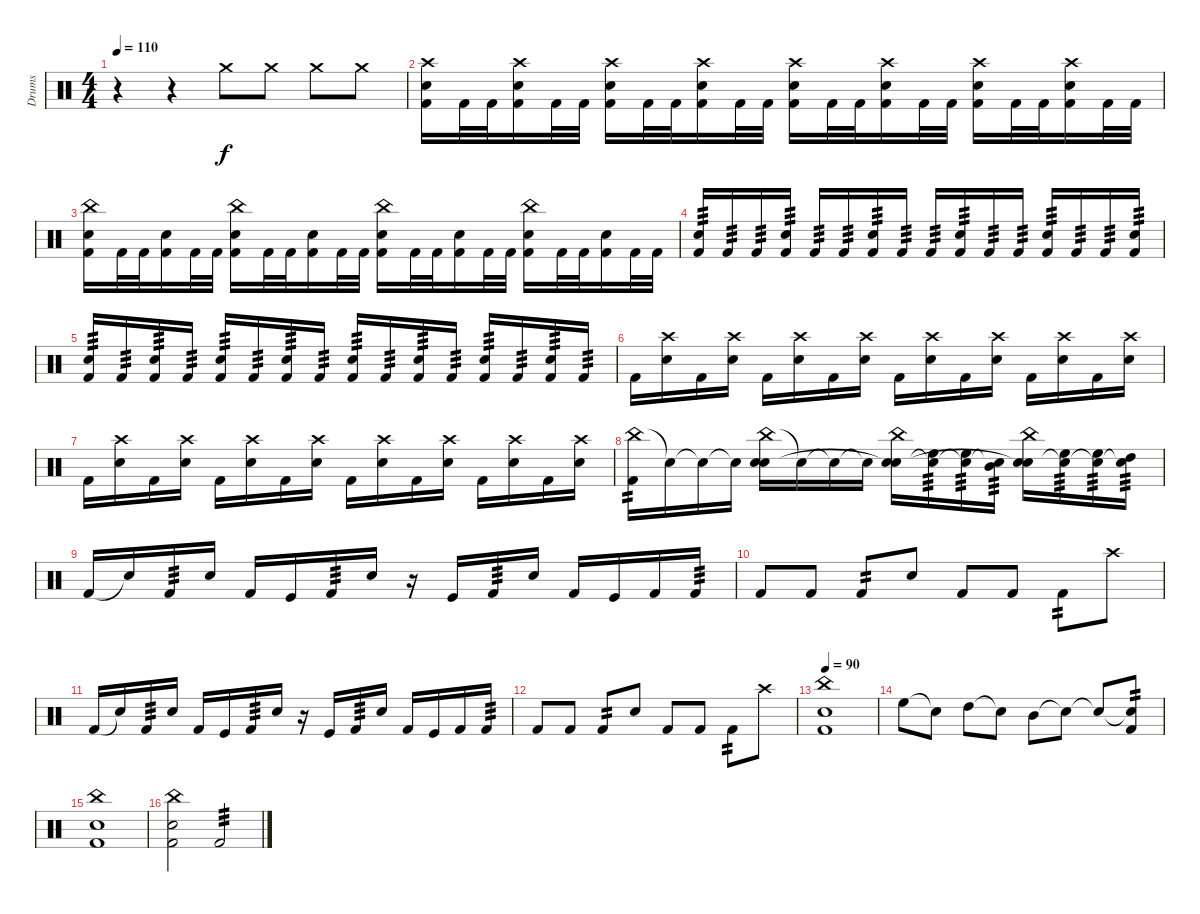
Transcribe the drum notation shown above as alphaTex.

\track ("Drums" "Drums") {instrument percussion}
\staff {score}
\articulation defaults
\ts (4 4)
\tempo 110
\clef neutral
\ks c
r.4{dy f} r.4 "Crash medium (hit)".8 "Crash medium (hit)".8 "Crash medium (hit)".8 "Crash medium (hit)".8 |
("Crash high (hit)" "Electric Snare (hit)" "Kick (hit) 2").16 "Kick (hit) 2".32 "Kick (hit) 2".32 ("Crash high (hit)" "Electric Snare (hit)" "Kick (hit) 2").16 "Kick (hit) 2".32 "Kick (hit) 2".32 ("Crash high (hit)" "Electric Snare (hit)" "Kick (hit) 2").16 "Kick (hit) 2".32 "Kick (hit) 2".32 ("Crash high (hit)" "Electric Snare (hit)" "Kick (hit) 2").16 "Kick (hit) 2".32 "Kick (hit) 2".32 ("Crash high (hit)" "Electric Snare (hit)" "Kick (hit) 2").16 "Kick (hit) 2".32 "Kick (hit) 2".32 ("Crash high (hit)" "Electric Snare (hit)" "Kick (hit) 2").16 "Kick (hit) 2".32 "Kick (hit) 2".32 ("Crash high (hit)" "Electric Snare (hit)" "Kick (hit) 2").16 "Kick (hit) 2".32 "Kick (hit) 2".32 ("Crash high (hit)" "Electric Snare (hit)" "Kick (hit) 2").16 "Kick (hit) 2".32 "Kick (hit) 2".32 |
("China (hit)" "Electric Snare (hit)" "Kick (hit) 2").16 "Kick (hit) 2".32 "Kick (hit) 2".32 ("Electric Snare (hit)" "Kick (hit) 2").16 "Kick (hit) 2".32 "Kick (hit) 2".32 ("China (hit)" "Electric Snare (hit)" "Kick (hit) 2").16 "Kick (hit) 2".32 "Kick (hit) 2".32 ("Electric Snare (hit)" "Kick (hit) 2").16 "Kick (hit) 2".32 "Kick (hit) 2".32 ("China (hit)" "Electric Snare (hit)" "Kick (hit) 2").16 "Kick (hit) 2".32 "Kick (hit) 2".32 ("Electric Snare (hit)" "Kick (hit) 2").16 "Kick (hit) 2".32 "Kick (hit) 2".32 ("China (hit)" "Electric Snare (hit)" "Kick (hit) 2").16 "Kick (hit) 2".32 "Kick (hit) 2".32 ("Electric Snare (hit)" "Kick (hit) 2").16 "Kick (hit) 2".32 "Kick (hit) 2".32 |
("Electric Snare (hit)" "Kick (hit) 2").16{tp 3} "Kick (hit) 2".16{tp 3} "Kick (hit) 2".16{tp 3} ("Electric Snare (hit)" "Kick (hit) 2").16{tp 3} "Kick (hit) 2".16{tp 3} "Kick (hit) 2".16{tp 3} ("Electric Snare (hit)" "Kick (hit) 2").16{tp 3} "Kick (hit) 2".16{tp 3} "Kick (hit) 2".16{tp 3} ("Electric Snare (hit)" "Kick (hit) 2").16{tp 3} "Kick (hit) 2".16{tp 3} "Kick (hit) 2".16{tp 3} ("Electric Snare (hit)" "Kick (hit) 2").16{tp 3} "Kick (hit) 2".16{tp 3} "Kick (hit) 2".16{tp 3} ("Electric Snare (hit)" "Kick (hit) 2").16{tp 3} |
("Electric Snare (hit)" "Kick (hit) 2").16{tp 3} "Kick (hit) 2".16{tp 3} ("Electric Snare (hit)" "Kick (hit) 2").16{tp 3} "Kick (hit) 2".16{tp 3} ("Electric Snare (hit)" "Kick (hit) 2").16{tp 3} "Kick (hit) 2".16{tp 3} ("Electric Snare (hit)" "Kick (hit) 2").16{tp 3} "Kick (hit) 2".16{tp 3} ("Electric Snare (hit)" "Kick (hit) 2").16{tp 3} "Kick (hit) 2".16{tp 3} ("Electric Snare (hit)" "Kick (hit) 2").16{tp 3} "Kick (hit) 2".16{tp 3} ("Electric Snare (hit)" "Kick (hit) 2").16{tp 3} "Kick (hit) 2".16{tp 3} ("Electric Snare (hit)" "Kick (hit) 2").16{tp 3} "Kick (hit) 2".16{tp 3} |
"Kick (hit) 2".16 ("Crash high (hit)" "Electric Snare (hit)").16 "Kick (hit) 2".16 ("Crash high (hit)" "Electric Snare (hit)").16 "Kick (hit) 2".16 ("Crash high (hit)" "Electric Snare (hit)").16 "Kick (hit) 2".16 ("Crash high (hit)" "Electric Snare (hit)").16 "Kick (hit) 2".16 ("Crash high (hit)" "Electric Snare (hit)").16 "Kick (hit) 2".16 ("Crash high (hit)" "Electric Snare (hit)").16 "Kick (hit) 2".16 ("Crash high (hit)" "Electric Snare (hit)").16 "Kick (hit) 2".16 ("Crash high (hit)" "Electric Snare (hit)").16 |
"Kick (hit) 2".16 ("Crash high (hit)" "Electric Snare (hit)").16 "Kick (hit) 2".16 ("Crash high (hit)" "Electric Snare (hit)").16 "Kick (hit) 2".16 ("Crash high (hit)" "Electric Snare (hit)").16 "Kick (hit) 2".16 ("Crash high (hit)" "Electric Snare (hit)").16 "Kick (hit) 2".16 ("Crash high (hit)" "Electric Snare (hit)").16 "Kick (hit) 2".16 ("Crash high (hit)" "Electric Snare (hit)").16 "Kick (hit) 2".16 ("Crash high (hit)" "Electric Snare (hit)").16 "Kick (hit) 2".16 ("Crash high (hit)" "Electric Snare (hit)").16 |
("China (hit)" "Kick (hit) 2").16{tp 2} "Snare (hit)"{t}.16 "Snare (hit)"{t}.16 "Snare (hit)"{t}.16 ("China (hit)" "Electric Snare (hit)" "Snare (hit)").16 "Snare (hit)"{t}.16 "Snare (hit)"{t}.16 "Snare (hit)"{t}.16 ("China (hit)" "Electric Snare (hit)" "Snare (hit)"{t}).16 ("High Floor Tom (hit)" "Snare (hit)"{t}).16{tp 3} ("High Floor Tom (hit)" "Snare (hit)"{t}).16{tp 3} ("Mid Tom (hit)" "Snare (hit)"{t}).16{tp 3} ("China (hit)" "Electric Snare (hit)" "Snare (hit)"{t}).16 ("High Floor Tom (hit)" "Snare (hit)"{t}).16{tp 3} ("High Floor Tom (hit)" "Snare (hit)"{t}).16{tp 3} ("High Tom (hit)" "Snare (hit)"{t}).16{tp 3} |
"Kick (hit) 2".16 "Snare (hit)"{t}.16 "Kick (hit) 2".16{tp 3} "Electric Snare (hit)".16 "Kick (hit) 2".16 "Kick (hit)".16 "Kick (hit) 2".16{tp 3} "Electric Snare (hit)".16 r.16 "Kick (hit)".16 "Kick (hit) 2".16{tp 3} "Electric Snare (hit)".16 "Kick (hit) 2".16 "Kick (hit)".16 "Kick (hit) 2".16 "Kick (hit) 2".16{tp 3} |
"Kick (hit) 2".8 "Kick (hit) 2".8 "Kick (hit) 2".8{tp 2} "Electric Snare (hit)".8 "Kick (hit) 2".8 "Kick (hit) 2".8 "Kick (hit) 2".8{tp 2} "Crash high (hit)".8 |
"Kick (hit) 2".16 "Snare (hit)"{t}.16 "Kick (hit) 2".16{tp 3} "Electric Snare (hit)".16 "Kick (hit) 2".16 "Kick (hit)".16 "Kick (hit) 2".16{tp 3} "Electric Snare (hit)".16 r.16 "Kick (hit)".16 "Kick (hit) 2".16{tp 3} "Electric Snare (hit)".16 "Kick (hit) 2".16 "Kick (hit)".16 "Kick (hit) 2".16 "Kick (hit) 2".16{tp 3} |
"Kick (hit) 2".8 "Kick (hit) 2".8 "Kick (hit) 2".8{tp 2} "Electric Snare (hit)".8 "Kick (hit) 2".8 "Kick (hit) 2".8 "Kick (hit) 2".8{tp 2} "Crash high (hit)".8 |
\tempo 90
("China (hit)" "Electric Snare (hit)" "Kick (hit) 2").1 |
"High Floor Tom (hit)".8 "Snare (hit)"{t}.8 "High Tom (hit)".8 "Snare (hit)"{t}.8 "Mid Tom (hit)".8 "Snare (hit)"{t}.8 "Snare (hit)"{t}.8 ("Snare (hit)"{t} "Kick (hit) 2").8{tp 2} |
("China (hit)" "Electric Snare (hit)" "Kick (hit) 2").1 |
("China (hit)" "Electric Snare (hit)" "Kick (hit) 2").2 "Kick (hit) 2".2{tp 3}
